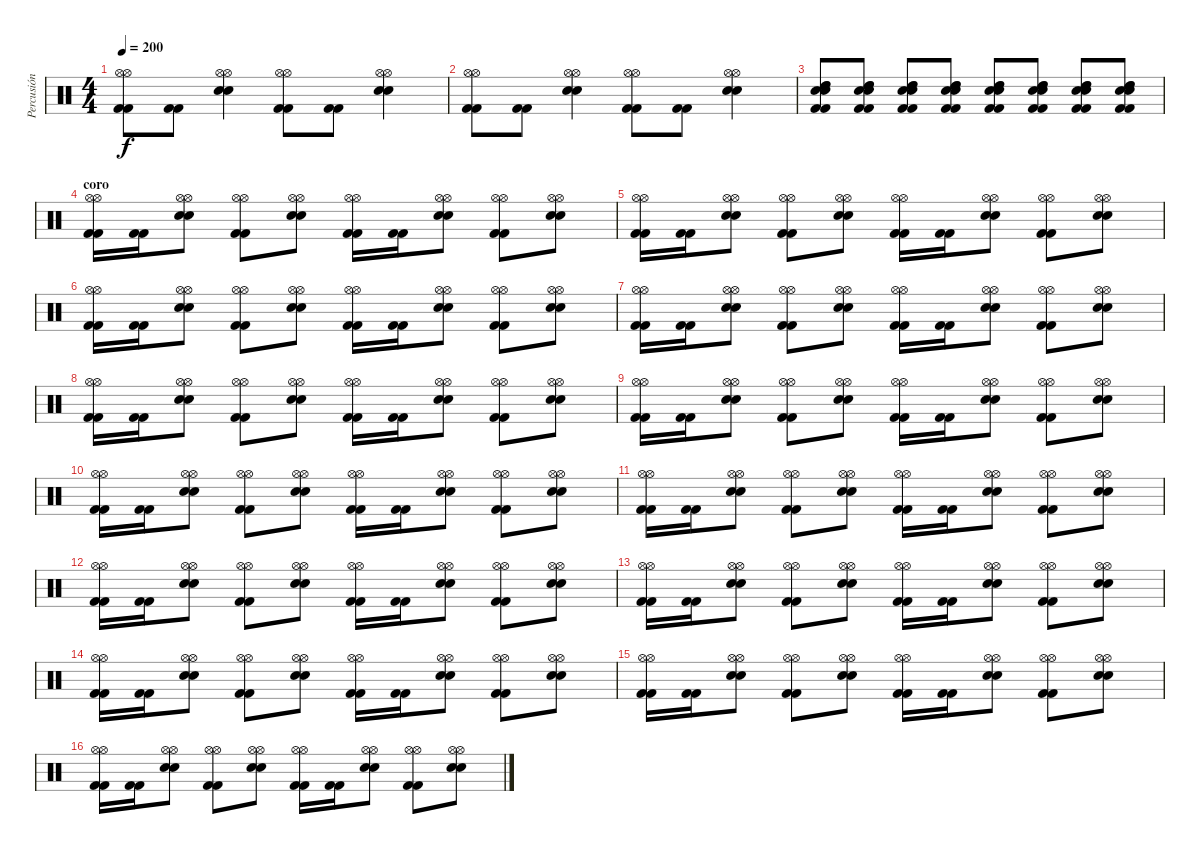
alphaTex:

\track ("Percusión" "Percusión") {instrument percussion}
\staff {score}
\articulation defaults
\ts (4 4)
\tempo 200
\clef neutral
\ks c
("Kick (hit) 2" "Kick (hit) 2" "Hi-Hat (open)" "Hi-Hat (open)").8{dy f} ("Kick (hit) 2" "Kick (hit) 2").8 ("Snare (hit) 2" "Snare (hit) 2" "Hi-Hat (open)" "Hi-Hat (open)").4 ("Kick (hit) 2" "Kick (hit) 2" "Hi-Hat (open)" "Hi-Hat (open)").8 ("Kick (hit) 2" "Kick (hit) 2").8 ("Snare (hit) 2" "Snare (hit) 2" "Hi-Hat (open)" "Hi-Hat (open)").4 |
("Kick (hit) 2" "Kick (hit) 2" "Hi-Hat (open)" "Hi-Hat (open)").8 ("Kick (hit) 2" "Kick (hit) 2").8 ("Snare (hit) 2" "Snare (hit) 2" "Hi-Hat (open)" "Hi-Hat (open)").4 ("Kick (hit) 2" "Kick (hit) 2" "Hi-Hat (open)" "Hi-Hat (open)").8 ("Kick (hit) 2" "Kick (hit) 2").8 ("Snare (hit) 2" "Snare (hit) 2" "Hi-Hat (open)" "Hi-Hat (open)").4 |
("Snare (hit) 2" "Snare (hit) 2" "High Tom (hit)" "High Tom (hit)" "Kick (hit) 2" "Kick (hit) 2").8 ("Snare (hit) 2" "Snare (hit) 2" "High Tom (hit)" "High Tom (hit)" "Kick (hit) 2" "Kick (hit) 2").8 ("Snare (hit) 2" "Snare (hit) 2" "High Tom (hit)" "High Tom (hit)" "Kick (hit) 2" "Kick (hit) 2").8 ("Snare (hit) 2" "Snare (hit) 2" "High Tom (hit)" "High Tom (hit)" "Kick (hit) 2" "Kick (hit) 2").8 ("Snare (hit) 2" "Snare (hit) 2" "High Tom (hit)" "High Tom (hit)" "Kick (hit) 2" "Kick (hit) 2").8 ("Snare (hit) 2" "Snare (hit) 2" "High Tom (hit)" "High Tom (hit)" "Kick (hit) 2" "Kick (hit) 2").8 ("Snare (hit) 2" "Snare (hit) 2" "High Tom (hit)" "High Tom (hit)" "Kick (hit) 2" "Kick (hit) 2").8 ("Snare (hit) 2" "Snare (hit) 2" "High Tom (hit)" "High Tom (hit)" "Kick (hit) 2" "Kick (hit) 2").8 |
\section ("" "coro")
("Kick (hit) 2" "Kick (hit) 2" "Hi-Hat (open)" "Hi-Hat (open)").16 ("Kick (hit) 2" "Kick (hit) 2").16 ("Snare (hit) 2" "Snare (hit) 2" "Hi-Hat (open)" "Hi-Hat (open)").8 ("Kick (hit) 2" "Kick (hit) 2" "Hi-Hat (open)" "Hi-Hat (open)").8 ("Snare (hit) 2" "Snare (hit) 2" "Hi-Hat (open)" "Hi-Hat (open)").8 ("Kick (hit) 2" "Kick (hit) 2" "Hi-Hat (open)" "Hi-Hat (open)").16 ("Kick (hit) 2" "Kick (hit) 2").16 ("Snare (hit) 2" "Snare (hit) 2" "Hi-Hat (open)" "Hi-Hat (open)").8 ("Kick (hit) 2" "Kick (hit) 2" "Hi-Hat (open)" "Hi-Hat (open)").8 ("Snare (hit) 2" "Snare (hit) 2" "Hi-Hat (open)" "Hi-Hat (open)").8 |
("Kick (hit) 2" "Kick (hit) 2" "Hi-Hat (open)" "Hi-Hat (open)").16 ("Kick (hit) 2" "Kick (hit) 2").16 ("Snare (hit) 2" "Snare (hit) 2" "Hi-Hat (open)" "Hi-Hat (open)").8 ("Kick (hit) 2" "Kick (hit) 2" "Hi-Hat (open)" "Hi-Hat (open)").8 ("Snare (hit) 2" "Snare (hit) 2" "Hi-Hat (open)" "Hi-Hat (open)").8 ("Kick (hit) 2" "Kick (hit) 2" "Hi-Hat (open)" "Hi-Hat (open)").16 ("Kick (hit) 2" "Kick (hit) 2").16 ("Snare (hit) 2" "Snare (hit) 2" "Hi-Hat (open)" "Hi-Hat (open)").8 ("Kick (hit) 2" "Kick (hit) 2" "Hi-Hat (open)" "Hi-Hat (open)").8 ("Snare (hit) 2" "Snare (hit) 2" "Hi-Hat (open)" "Hi-Hat (open)").8 |
("Kick (hit) 2" "Kick (hit) 2" "Hi-Hat (open)" "Hi-Hat (open)").16 ("Kick (hit) 2" "Kick (hit) 2").16 ("Snare (hit) 2" "Snare (hit) 2" "Hi-Hat (open)" "Hi-Hat (open)").8 ("Kick (hit) 2" "Kick (hit) 2" "Hi-Hat (open)" "Hi-Hat (open)").8 ("Snare (hit) 2" "Snare (hit) 2" "Hi-Hat (open)" "Hi-Hat (open)").8 ("Kick (hit) 2" "Kick (hit) 2" "Hi-Hat (open)" "Hi-Hat (open)").16 ("Kick (hit) 2" "Kick (hit) 2").16 ("Snare (hit) 2" "Snare (hit) 2" "Hi-Hat (open)" "Hi-Hat (open)").8 ("Kick (hit) 2" "Kick (hit) 2" "Hi-Hat (open)" "Hi-Hat (open)").8 ("Snare (hit) 2" "Snare (hit) 2" "Hi-Hat (open)" "Hi-Hat (open)").8 |
("Kick (hit) 2" "Kick (hit) 2" "Hi-Hat (open)" "Hi-Hat (open)").16 ("Kick (hit) 2" "Kick (hit) 2").16 ("Snare (hit) 2" "Snare (hit) 2" "Hi-Hat (open)" "Hi-Hat (open)").8 ("Kick (hit) 2" "Kick (hit) 2" "Hi-Hat (open)" "Hi-Hat (open)").8 ("Snare (hit) 2" "Snare (hit) 2" "Hi-Hat (open)" "Hi-Hat (open)").8 ("Kick (hit) 2" "Kick (hit) 2" "Hi-Hat (open)" "Hi-Hat (open)").16 ("Kick (hit) 2" "Kick (hit) 2").16 ("Snare (hit) 2" "Snare (hit) 2" "Hi-Hat (open)" "Hi-Hat (open)").8 ("Kick (hit) 2" "Kick (hit) 2" "Hi-Hat (open)" "Hi-Hat (open)").8 ("Snare (hit) 2" "Snare (hit) 2" "Hi-Hat (open)" "Hi-Hat (open)").8 |
("Kick (hit) 2" "Kick (hit) 2" "Hi-Hat (open)" "Hi-Hat (open)").16 ("Kick (hit) 2" "Kick (hit) 2").16 ("Snare (hit) 2" "Snare (hit) 2" "Hi-Hat (open)" "Hi-Hat (open)").8 ("Kick (hit) 2" "Kick (hit) 2" "Hi-Hat (open)" "Hi-Hat (open)").8 ("Snare (hit) 2" "Snare (hit) 2" "Hi-Hat (open)" "Hi-Hat (open)").8 ("Kick (hit) 2" "Kick (hit) 2" "Hi-Hat (open)" "Hi-Hat (open)").16 ("Kick (hit) 2" "Kick (hit) 2").16 ("Snare (hit) 2" "Snare (hit) 2" "Hi-Hat (open)" "Hi-Hat (open)").8 ("Kick (hit) 2" "Kick (hit) 2" "Hi-Hat (open)" "Hi-Hat (open)").8 ("Snare (hit) 2" "Snare (hit) 2" "Hi-Hat (open)" "Hi-Hat (open)").8 |
("Kick (hit) 2" "Kick (hit) 2" "Hi-Hat (open)" "Hi-Hat (open)").16 ("Kick (hit) 2" "Kick (hit) 2").16 ("Snare (hit) 2" "Snare (hit) 2" "Hi-Hat (open)" "Hi-Hat (open)").8 ("Kick (hit) 2" "Kick (hit) 2" "Hi-Hat (open)" "Hi-Hat (open)").8 ("Snare (hit) 2" "Snare (hit) 2" "Hi-Hat (open)" "Hi-Hat (open)").8 ("Kick (hit) 2" "Kick (hit) 2" "Hi-Hat (open)" "Hi-Hat (open)").16 ("Kick (hit) 2" "Kick (hit) 2").16 ("Snare (hit) 2" "Snare (hit) 2" "Hi-Hat (open)" "Hi-Hat (open)").8 ("Kick (hit) 2" "Kick (hit) 2" "Hi-Hat (open)" "Hi-Hat (open)").8 ("Snare (hit) 2" "Snare (hit) 2" "Hi-Hat (open)" "Hi-Hat (open)").8 |
("Kick (hit) 2" "Kick (hit) 2" "Hi-Hat (open)" "Hi-Hat (open)").16 ("Kick (hit) 2" "Kick (hit) 2").16 ("Snare (hit) 2" "Snare (hit) 2" "Hi-Hat (open)" "Hi-Hat (open)").8 ("Kick (hit) 2" "Kick (hit) 2" "Hi-Hat (open)" "Hi-Hat (open)").8 ("Snare (hit) 2" "Snare (hit) 2" "Hi-Hat (open)" "Hi-Hat (open)").8 ("Kick (hit) 2" "Kick (hit) 2" "Hi-Hat (open)" "Hi-Hat (open)").16 ("Kick (hit) 2" "Kick (hit) 2").16 ("Snare (hit) 2" "Snare (hit) 2" "Hi-Hat (open)" "Hi-Hat (open)").8 ("Kick (hit) 2" "Kick (hit) 2" "Hi-Hat (open)" "Hi-Hat (open)").8 ("Snare (hit) 2" "Snare (hit) 2" "Hi-Hat (open)" "Hi-Hat (open)").8 |
("Kick (hit) 2" "Kick (hit) 2" "Hi-Hat (open)" "Hi-Hat (open)").16 ("Kick (hit) 2" "Kick (hit) 2").16 ("Snare (hit) 2" "Snare (hit) 2" "Hi-Hat (open)" "Hi-Hat (open)").8 ("Kick (hit) 2" "Kick (hit) 2" "Hi-Hat (open)" "Hi-Hat (open)").8 ("Snare (hit) 2" "Snare (hit) 2" "Hi-Hat (open)" "Hi-Hat (open)").8 ("Kick (hit) 2" "Kick (hit) 2" "Hi-Hat (open)" "Hi-Hat (open)").16 ("Kick (hit) 2" "Kick (hit) 2").16 ("Snare (hit) 2" "Snare (hit) 2" "Hi-Hat (open)" "Hi-Hat (open)").8 ("Kick (hit) 2" "Kick (hit) 2" "Hi-Hat (open)" "Hi-Hat (open)").8 ("Snare (hit) 2" "Snare (hit) 2" "Hi-Hat (open)" "Hi-Hat (open)").8 |
("Kick (hit) 2" "Kick (hit) 2" "Hi-Hat (open)" "Hi-Hat (open)").16 ("Kick (hit) 2" "Kick (hit) 2").16 ("Snare (hit) 2" "Snare (hit) 2" "Hi-Hat (open)" "Hi-Hat (open)").8 ("Kick (hit) 2" "Kick (hit) 2" "Hi-Hat (open)" "Hi-Hat (open)").8 ("Snare (hit) 2" "Snare (hit) 2" "Hi-Hat (open)" "Hi-Hat (open)").8 ("Kick (hit) 2" "Kick (hit) 2" "Hi-Hat (open)" "Hi-Hat (open)").16 ("Kick (hit) 2" "Kick (hit) 2").16 ("Snare (hit) 2" "Snare (hit) 2" "Hi-Hat (open)" "Hi-Hat (open)").8 ("Kick (hit) 2" "Kick (hit) 2" "Hi-Hat (open)" "Hi-Hat (open)").8 ("Snare (hit) 2" "Snare (hit) 2" "Hi-Hat (open)" "Hi-Hat (open)").8 |
("Kick (hit) 2" "Kick (hit) 2" "Hi-Hat (open)" "Hi-Hat (open)").16 ("Kick (hit) 2" "Kick (hit) 2").16 ("Snare (hit) 2" "Snare (hit) 2" "Hi-Hat (open)" "Hi-Hat (open)").8 ("Kick (hit) 2" "Kick (hit) 2" "Hi-Hat (open)" "Hi-Hat (open)").8 ("Snare (hit) 2" "Snare (hit) 2" "Hi-Hat (open)" "Hi-Hat (open)").8 ("Kick (hit) 2" "Kick (hit) 2" "Hi-Hat (open)" "Hi-Hat (open)").16 ("Kick (hit) 2" "Kick (hit) 2").16 ("Snare (hit) 2" "Snare (hit) 2" "Hi-Hat (open)" "Hi-Hat (open)").8 ("Kick (hit) 2" "Kick (hit) 2" "Hi-Hat (open)" "Hi-Hat (open)").8 ("Snare (hit) 2" "Snare (hit) 2" "Hi-Hat (open)" "Hi-Hat (open)").8 |
("Kick (hit) 2" "Kick (hit) 2" "Hi-Hat (open)" "Hi-Hat (open)").16 ("Kick (hit) 2" "Kick (hit) 2").16 ("Snare (hit) 2" "Snare (hit) 2" "Hi-Hat (open)" "Hi-Hat (open)").8 ("Kick (hit) 2" "Kick (hit) 2" "Hi-Hat (open)" "Hi-Hat (open)").8 ("Snare (hit) 2" "Snare (hit) 2" "Hi-Hat (open)" "Hi-Hat (open)").8 ("Kick (hit) 2" "Kick (hit) 2" "Hi-Hat (open)" "Hi-Hat (open)").16 ("Kick (hit) 2" "Kick (hit) 2").16 ("Snare (hit) 2" "Snare (hit) 2" "Hi-Hat (open)" "Hi-Hat (open)").8 ("Kick (hit) 2" "Kick (hit) 2" "Hi-Hat (open)" "Hi-Hat (open)").8 ("Snare (hit) 2" "Snare (hit) 2" "Hi-Hat (open)" "Hi-Hat (open)").8 |
("Kick (hit) 2" "Kick (hit) 2" "Hi-Hat (open)" "Hi-Hat (open)").16 ("Kick (hit) 2" "Kick (hit) 2").16 ("Snare (hit) 2" "Snare (hit) 2" "Hi-Hat (open)" "Hi-Hat (open)").8 ("Kick (hit) 2" "Kick (hit) 2" "Hi-Hat (open)" "Hi-Hat (open)").8 ("Snare (hit) 2" "Snare (hit) 2" "Hi-Hat (open)" "Hi-Hat (open)").8 ("Kick (hit) 2" "Kick (hit) 2" "Hi-Hat (open)" "Hi-Hat (open)").16 ("Kick (hit) 2" "Kick (hit) 2").16 ("Snare (hit) 2" "Snare (hit) 2" "Hi-Hat (open)" "Hi-Hat (open)").8 ("Kick (hit) 2" "Kick (hit) 2" "Hi-Hat (open)" "Hi-Hat (open)").8 ("Snare (hit) 2" "Snare (hit) 2" "Hi-Hat (open)" "Hi-Hat (open)").8 |
("Kick (hit) 2" "Kick (hit) 2" "Hi-Hat (open)" "Hi-Hat (open)").16 ("Kick (hit) 2" "Kick (hit) 2").16 ("Snare (hit) 2" "Snare (hit) 2" "Hi-Hat (open)" "Hi-Hat (open)").8 ("Kick (hit) 2" "Kick (hit) 2" "Hi-Hat (open)" "Hi-Hat (open)").8 ("Snare (hit) 2" "Snare (hit) 2" "Hi-Hat (open)" "Hi-Hat (open)").8 ("Kick (hit) 2" "Kick (hit) 2" "Hi-Hat (open)" "Hi-Hat (open)").16 ("Kick (hit) 2" "Kick (hit) 2").16 ("Snare (hit) 2" "Snare (hit) 2" "Hi-Hat (open)" "Hi-Hat (open)").8 ("Kick (hit) 2" "Kick (hit) 2" "Hi-Hat (open)" "Hi-Hat (open)").8 ("Snare (hit) 2" "Snare (hit) 2" "Hi-Hat (open)" "Hi-Hat (open)").8
